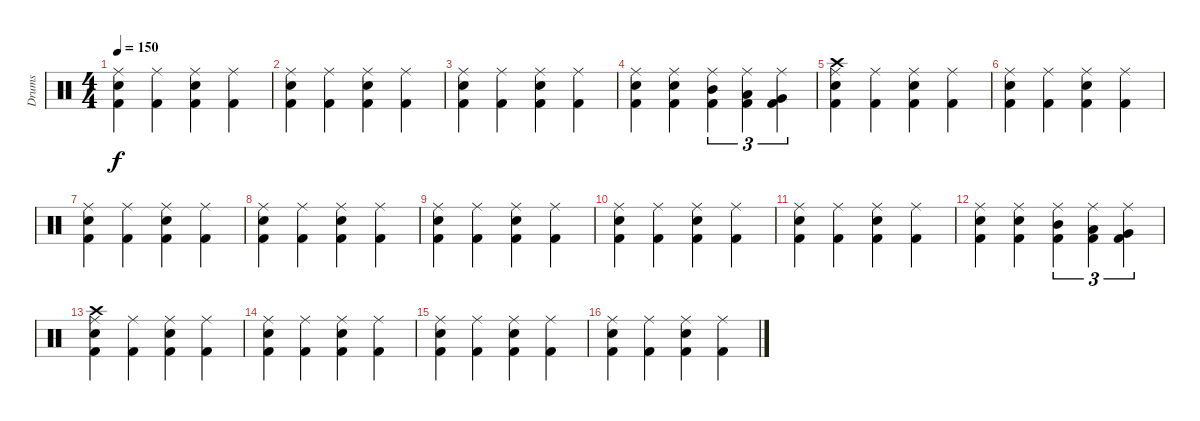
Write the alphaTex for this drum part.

\track ("Drums" "Drums") {instrument percussion}
\staff {score}
\articulation defaults
\ts (4 4)
\tempo 150
\clef neutral
\ks c
("Ride (middle)" "Electric Snare (hit)" "Kick (hit) 2").4{dy f} ("Ride (middle)" "Kick (hit) 2").4 ("Ride (middle)" "Electric Snare (hit)" "Kick (hit) 2").4 ("Ride (middle)" "Kick (hit) 2").4 |
("Ride (middle)" "Electric Snare (hit)" "Kick (hit) 2").4 ("Ride (middle)" "Kick (hit) 2").4 ("Ride (middle)" "Electric Snare (hit)" "Kick (hit) 2").4 ("Ride (middle)" "Kick (hit) 2").4 |
("Ride (middle)" "Electric Snare (hit)" "Kick (hit) 2").4 ("Ride (middle)" "Kick (hit) 2").4 ("Ride (middle)" "Electric Snare (hit)" "Kick (hit) 2").4 ("Ride (middle)" "Kick (hit) 2").4 |
("Ride (middle)" "Electric Snare (hit)" "Kick (hit) 2").4 ("Ride (middle)" "Snare (hit) 2" "Kick (hit) 2").4 ("Ride (middle)" "Mid Tom (hit)" "Kick (hit) 2").4{tu (3 2)} ("Ride (middle)" "Low Tom (hit)" "Kick (hit) 2").4{tu (3 2)} ("Ride (middle)" "Very Low Tom (hit)" "Kick (hit) 2").4{tu (3 2)} |
("Crash high (hit)" "Ride (middle)" "Electric Snare (hit)" "Kick (hit) 2").4 ("Ride (middle)" "Kick (hit) 2").4 ("Ride (middle)" "Electric Snare (hit)" "Kick (hit) 2").4 ("Ride (middle)" "Kick (hit) 2").4 |
("Ride (middle)" "Electric Snare (hit)" "Kick (hit) 2").4 ("Ride (middle)" "Kick (hit) 2").4 ("Ride (middle)" "Electric Snare (hit)" "Kick (hit) 2").4 ("Ride (middle)" "Kick (hit) 2").4 |
("Ride (middle)" "Electric Snare (hit)" "Kick (hit) 2").4 ("Ride (middle)" "Kick (hit) 2").4 ("Ride (middle)" "Electric Snare (hit)" "Kick (hit) 2").4 ("Ride (middle)" "Kick (hit) 2").4 |
("Ride (middle)" "Electric Snare (hit)" "Kick (hit) 2").4 ("Ride (middle)" "Kick (hit) 2").4 ("Ride (middle)" "Electric Snare (hit)" "Kick (hit) 2").4 ("Ride (middle)" "Kick (hit) 2").4 |
("Ride (middle)" "Electric Snare (hit)" "Kick (hit) 2").4 ("Ride (middle)" "Kick (hit) 2").4 ("Ride (middle)" "Electric Snare (hit)" "Kick (hit) 2").4 ("Ride (middle)" "Kick (hit) 2").4 |
("Ride (middle)" "Electric Snare (hit)" "Kick (hit) 2").4 ("Ride (middle)" "Kick (hit) 2").4 ("Ride (middle)" "Electric Snare (hit)" "Kick (hit) 2").4 ("Ride (middle)" "Kick (hit) 2").4 |
("Ride (middle)" "Electric Snare (hit)" "Kick (hit) 2").4 ("Ride (middle)" "Kick (hit) 2").4 ("Ride (middle)" "Electric Snare (hit)" "Kick (hit) 2").4 ("Ride (middle)" "Kick (hit) 2").4 |
("Ride (middle)" "Electric Snare (hit)" "Kick (hit) 2").4 ("Ride (middle)" "Snare (hit) 2" "Kick (hit) 2").4 ("Ride (middle)" "Mid Tom (hit)" "Kick (hit) 2").4{tu (3 2)} ("Ride (middle)" "Low Tom (hit)" "Kick (hit) 2").4{tu (3 2)} ("Ride (middle)" "Very Low Tom (hit)" "Kick (hit) 2").4{tu (3 2)} |
("Crash high (hit)" "Ride (middle)" "Electric Snare (hit)" "Kick (hit) 2").4 ("Ride (middle)" "Kick (hit) 2").4 ("Ride (middle)" "Electric Snare (hit)" "Kick (hit) 2").4 ("Ride (middle)" "Kick (hit) 2").4 |
("Ride (middle)" "Electric Snare (hit)" "Kick (hit) 2").4 ("Ride (middle)" "Kick (hit) 2").4 ("Ride (middle)" "Electric Snare (hit)" "Kick (hit) 2").4 ("Ride (middle)" "Kick (hit) 2").4 |
("Ride (middle)" "Electric Snare (hit)" "Kick (hit) 2").4 ("Ride (middle)" "Kick (hit) 2").4 ("Ride (middle)" "Electric Snare (hit)" "Kick (hit) 2").4 ("Ride (middle)" "Kick (hit) 2").4 |
("Ride (middle)" "Electric Snare (hit)" "Kick (hit) 2").4 ("Ride (middle)" "Kick (hit) 2").4 ("Ride (middle)" "Electric Snare (hit)" "Kick (hit) 2").4 ("Ride (middle)" "Kick (hit) 2").4
